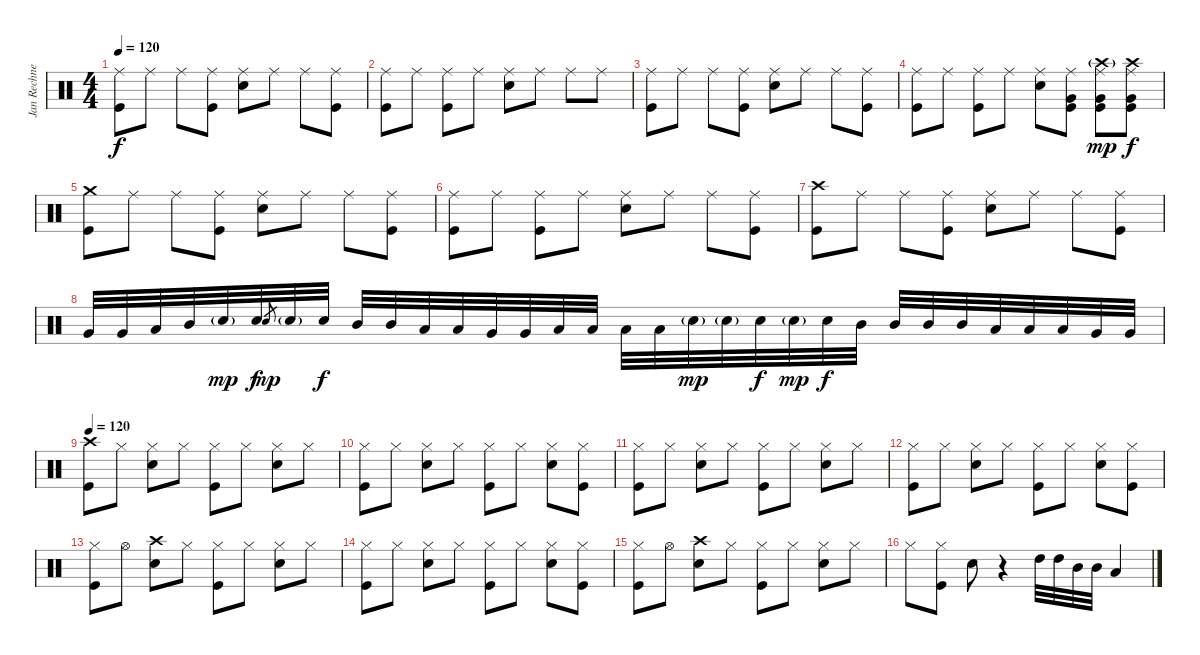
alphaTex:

\track ("Jan Rechnerger" "Jan Rechne") {instrument percussion}
\staff {score}
\articulation defaults
\ts (4 4)
\tempo 120
\clef neutral
\ks c
("Kick (hit)" "Ride (middle)").8{dy f} "Ride (middle)".8 "Ride (middle)".8 ("Kick (hit)" "Ride (middle)").8 ("Snare (hit) 2" "Ride (middle)").8 "Ride (middle)".8 "Ride (middle)".8 ("Kick (hit)" "Ride (middle)").8 |
("Kick (hit)" "Ride (middle)").8 "Ride (middle)".8 ("Kick (hit)" "Ride (middle)").8 "Ride (middle)".8 ("Snare (hit) 2" "Ride (middle)").8 "Ride (middle)".8 "Ride (middle)".8 "Ride (middle)".8 |
("Kick (hit)" "Ride (middle)").8 "Ride (middle)".8 "Ride (middle)".8 ("Kick (hit)" "Ride (middle)").8 ("Snare (hit) 2" "Ride (middle)").8 "Ride (middle)".8 "Ride (middle)".8 ("Kick (hit)" "Ride (middle)").8 |
("Kick (hit)" "Ride (middle)").8 "Ride (middle)".8 ("Kick (hit)" "Ride (middle)").8 "Ride (middle)".8 ("Snare (hit) 2" "Ride (middle)").8 ("Kick (hit)" "Very Low Tom (hit)" "Ride (middle)").8 ("Kick (hit)" "Very Low Tom (hit)" "Ride (middle)" "Crash high (hit)"{g}).8{dy mp} ("Kick (hit)" "Very Low Tom (hit)" "Ride (middle)" "Crash high (hit)").8{dy f} |
("Kick (hit)" "Crash medium (hit)").8 "Ride (middle)".8 "Ride (middle)".8 ("Kick (hit)" "Ride (middle)").8 ("Snare (hit) 2" "Ride (middle)").8 "Ride (middle)".8 "Ride (middle)".8 ("Kick (hit)" "Ride (middle)").8 |
("Kick (hit)" "Ride (middle)").8 "Ride (middle)".8 ("Kick (hit)" "Ride (middle)").8 "Ride (middle)".8 ("Snare (hit) 2" "Ride (middle)").8 "Ride (middle)".8 "Ride (middle)".8 ("Kick (hit)" "Ride (middle)").8 |
("Kick (hit)" "Crash high (hit)").8 "Ride (middle)".8 "Ride (middle)".8 ("Kick (hit)" "Ride (middle)").8 ("Snare (hit) 2" "Ride (middle)").8 "Ride (middle)".8 "Ride (middle)".8 ("Kick (hit)" "Ride (middle)").8 |
"Very Low Tom (hit)".32 "Very Low Tom (hit)".32 "Low Tom (hit)".32 "Mid Tom (hit)".32 "Snare (hit) 2"{g}.32{dy mp} "Snare (hit) 2".32{dy f} "Snare (hit) 2".8{gr dy mp} "Snare (hit) 2"{g}.32 "Snare (hit) 2".32{dy f} "Mid Tom (hit)".32 "Mid Tom (hit)".32 "Low Tom (hit)".32 "Low Tom (hit)".32 "Very Low Tom (hit)".32 "Very Low Tom (hit)".32 "Low Tom (hit)".32 "Low Tom (hit)".32 "Low Tom (hit)".32 "Low Tom (hit)".32 "Snare (hit) 2"{g}.32{dy mp} "Snare (hit) 2"{g}.32 "Snare (hit) 2".32{dy f} "Snare (hit) 2"{g}.32{dy mp} "Snare (hit) 2".32{dy f} "Mid Tom (hit)".32 "Mid Tom (hit)".32 "Mid Tom (hit)".32 "Mid Tom (hit)".32 "Low Tom (hit)".32 "Low Tom (hit)".32 "Low Tom (hit)".32 "Very Low Tom (hit)".32 "Very Low Tom (hit)".32 |
\tempo 120
("Kick (hit)" "Crash high (hit)").8 "Hi-Hat (closed)".8 ("Snare (hit) 2" "Hi-Hat (closed)").8 "Hi-Hat (closed)".8 ("Kick (hit)" "Hi-Hat (closed)").8 "Hi-Hat (closed)".8 ("Snare (hit) 2" "Hi-Hat (closed)").8 "Hi-Hat (closed)".8 |
("Kick (hit)" "Hi-Hat (closed)").8 "Hi-Hat (closed)".8 ("Snare (hit) 2" "Hi-Hat (closed)").8 "Hi-Hat (closed)".8 ("Kick (hit)" "Hi-Hat (closed)").8 "Hi-Hat (closed)".8 ("Snare (hit) 2" "Hi-Hat (closed)").8 ("Kick (hit)" "Hi-Hat (closed)").8 |
("Kick (hit)" "Hi-Hat (closed)").8 "Hi-Hat (closed)".8 ("Snare (hit) 2" "Hi-Hat (closed)").8 "Hi-Hat (closed)".8 ("Kick (hit)" "Hi-Hat (closed)").8 "Hi-Hat (closed)".8 ("Snare (hit) 2" "Hi-Hat (closed)").8 "Hi-Hat (closed)".8 |
("Kick (hit)" "Hi-Hat (closed)").8 "Hi-Hat (closed)".8 ("Snare (hit) 2" "Hi-Hat (closed)").8 "Hi-Hat (closed)".8 ("Kick (hit)" "Hi-Hat (closed)").8 "Hi-Hat (closed)".8 ("Snare (hit) 2" "Hi-Hat (closed)").8 ("Kick (hit)" "Hi-Hat (closed)").8 |
("Kick (hit)" "Hi-Hat (closed)").8 "Hi-Hat (open)".8 ("Snare (hit) 2" "Crash high (hit)").8 "Hi-Hat (closed)".8 ("Kick (hit)" "Hi-Hat (closed)").8 "Hi-Hat (closed)".8 ("Snare (hit) 2" "Hi-Hat (closed)").8 "Hi-Hat (closed)".8 |
("Kick (hit)" "Hi-Hat (closed)").8 "Hi-Hat (closed)".8 ("Snare (hit) 2" "Hi-Hat (closed)").8 "Hi-Hat (closed)".8 ("Kick (hit)" "Hi-Hat (closed)").8 "Hi-Hat (closed)".8 ("Snare (hit) 2" "Hi-Hat (closed)").8 ("Kick (hit)" "Hi-Hat (closed)").8 |
("Kick (hit)" "Hi-Hat (closed)").8 "Hi-Hat (open)".8 ("Snare (hit) 2" "Crash high (hit)").8 "Hi-Hat (closed)".8 ("Kick (hit)" "Hi-Hat (closed)").8 "Hi-Hat (closed)".8 ("Snare (hit) 2" "Hi-Hat (closed)").8 "Hi-Hat (closed)".8 |
"Hi-Hat (closed)".8 ("Kick (hit)" "Hi-Hat (closed)").8 "Snare (hit) 2".8 r.4 "High Tom (hit)".32 "High Tom (hit)".32 "Mid Tom (hit)".32 "Mid Tom (hit)".32 "Low Tom (hit)".4
